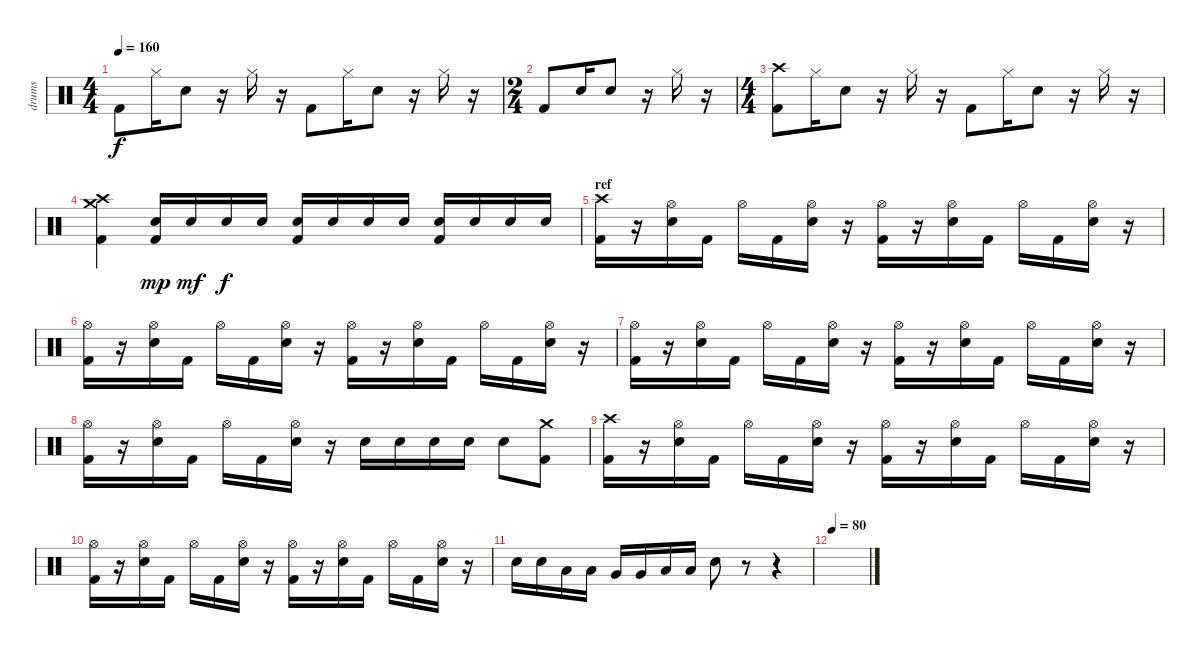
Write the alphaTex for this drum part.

\track ("drums" "drums") {instrument percussion}
\staff {score}
\articulation defaults
\ts (4 4)
\tempo 160
\clef neutral
\ks c "Kick (hit) 2".8{dy f} "Hi-Hat (closed)".16 "Electric Snare (hit)".8
r.16 "Hi-Hat (closed)".16 r.16 "Kick (hit) 2".8 "Hi-Hat (closed)".16 "Electric Snare (hit)".8 r.16 "Hi-Hat (closed)".16 r.16 |
\ts (2 4)
"Kick (hit) 2".8 "Electric Snare (hit)".16 "Electric Snare (hit)".8 r.16 "Hi-Hat (closed)".16 r.16 |
\ts (4 4)
("Crash high (hit)" "Kick (hit) 2").8 "Hi-Hat (closed)".16 "Electric Snare (hit)".8 r.16 "Hi-Hat (closed)".16 r.16 "Kick (hit) 2".8 "Hi-Hat (closed)".16 "Electric Snare (hit)".8 r.16 "Hi-Hat (closed)".16 r.16 |
("Crash high (hit)" "Crash medium (hit)" "Kick (hit) 2").4 ("Electric Snare (hit)" "Kick (hit) 2").16{dy mp} "Electric Snare (hit)".16{dy mf} "Electric Snare (hit)".16{dy f} "Electric Snare (hit)".16 ("Electric Snare (hit)" "Kick (hit) 2").16 "Electric Snare (hit)".16 "Electric Snare (hit)".16 "Electric Snare (hit)".16 ("Electric Snare (hit)" "Kick (hit) 2").16 "Electric Snare (hit)".16 "Electric Snare (hit)".16 "Electric Snare (hit)".16 |
\section ("" "ref")
("Crash high (hit)" "Kick (hit) 2").16 r.16 ("Hi-Hat (open)" "Electric Snare (hit)").16 "Kick (hit) 2".16 "Hi-Hat (open)".16 "Kick (hit) 2".16 ("Hi-Hat (open)" "Electric Snare (hit)").16 r.16 ("Hi-Hat (open)" "Kick (hit) 2").16 r.16 ("Hi-Hat (open)" "Electric Snare (hit)").16 "Kick (hit) 2".16 "Hi-Hat (open)".16 "Kick (hit) 2".16 ("Hi-Hat (open)" "Electric Snare (hit)").16 r.16 |
("Hi-Hat (open)" "Kick (hit) 2").16 r.16 ("Hi-Hat (open)" "Electric Snare (hit)").16 "Kick (hit) 2".16 "Hi-Hat (open)".16 "Kick (hit) 2".16 ("Hi-Hat (open)" "Electric Snare (hit)").16 r.16 ("Hi-Hat (open)" "Kick (hit) 2").16 r.16 ("Hi-Hat (open)" "Electric Snare (hit)").16 "Kick (hit) 2".16 "Hi-Hat (open)".16 "Kick (hit) 2".16 ("Hi-Hat (open)" "Electric Snare (hit)").16 r.16 |
("Hi-Hat (open)" "Kick (hit) 2").16 r.16 ("Hi-Hat (open)" "Electric Snare (hit)").16 "Kick (hit) 2".16 "Hi-Hat (open)".16 "Kick (hit) 2".16 ("Hi-Hat (open)" "Electric Snare (hit)").16 r.16 ("Hi-Hat (open)" "Kick (hit) 2").16 r.16 ("Hi-Hat (open)" "Electric Snare (hit)").16 "Kick (hit) 2".16 "Hi-Hat (open)".16 "Kick (hit) 2".16 ("Hi-Hat (open)" "Electric Snare (hit)").16 r.16 |
("Hi-Hat (open)" "Kick (hit) 2").16 r.16 ("Hi-Hat (open)" "Electric Snare (hit)").16 "Kick (hit) 2".16 "Hi-Hat (open)".16 "Kick (hit) 2".16 ("Hi-Hat (open)" "Electric Snare (hit)").16 r.16 "Electric Snare (hit)".16 "Electric Snare (hit)".16 "Electric Snare (hit)".16 "Electric Snare (hit)".16 "Electric Snare (hit)".8 ("Crash medium (hit)" "Kick (hit) 2").8 |
("Crash high (hit)" "Kick (hit) 2").16 r.16 ("Hi-Hat (open)" "Electric Snare (hit)").16 "Kick (hit) 2".16 "Hi-Hat (open)".16 "Kick (hit) 2".16 ("Hi-Hat (open)" "Electric Snare (hit)").16 r.16 ("Hi-Hat (open)" "Kick (hit) 2").16 r.16 ("Hi-Hat (open)" "Electric Snare (hit)").16 "Kick (hit) 2".16 "Hi-Hat (open)".16 "Kick (hit) 2".16 ("Hi-Hat (open)" "Electric Snare (hit)").16 r.16 |
("Hi-Hat (open)" "Kick (hit) 2").16 r.16 ("Hi-Hat (open)" "Electric Snare (hit)").16 "Kick (hit) 2".16 "Hi-Hat (open)".16 "Kick (hit) 2".16 ("Hi-Hat (open)" "Electric Snare (hit)").16 r.16 ("Hi-Hat (open)" "Kick (hit) 2").16 r.16 ("Hi-Hat (open)" "Electric Snare (hit)").16 "Kick (hit) 2".16 "Hi-Hat (open)".16 "Kick (hit) 2".16 ("Hi-Hat (open)" "Electric Snare (hit)").16 r.16 |
"Electric Snare (hit)".16 "Electric Snare (hit)".16 "Low Tom (hit)".16 "Low Tom (hit)".16 "Very Low Tom (hit)".16 "Very Low Tom (hit)".16 "Low Floor Tom (hit)".16 "Low Floor Tom (hit)".16 "Electric Snare (hit)".8 r.8 r.4 |
\tempo 80
